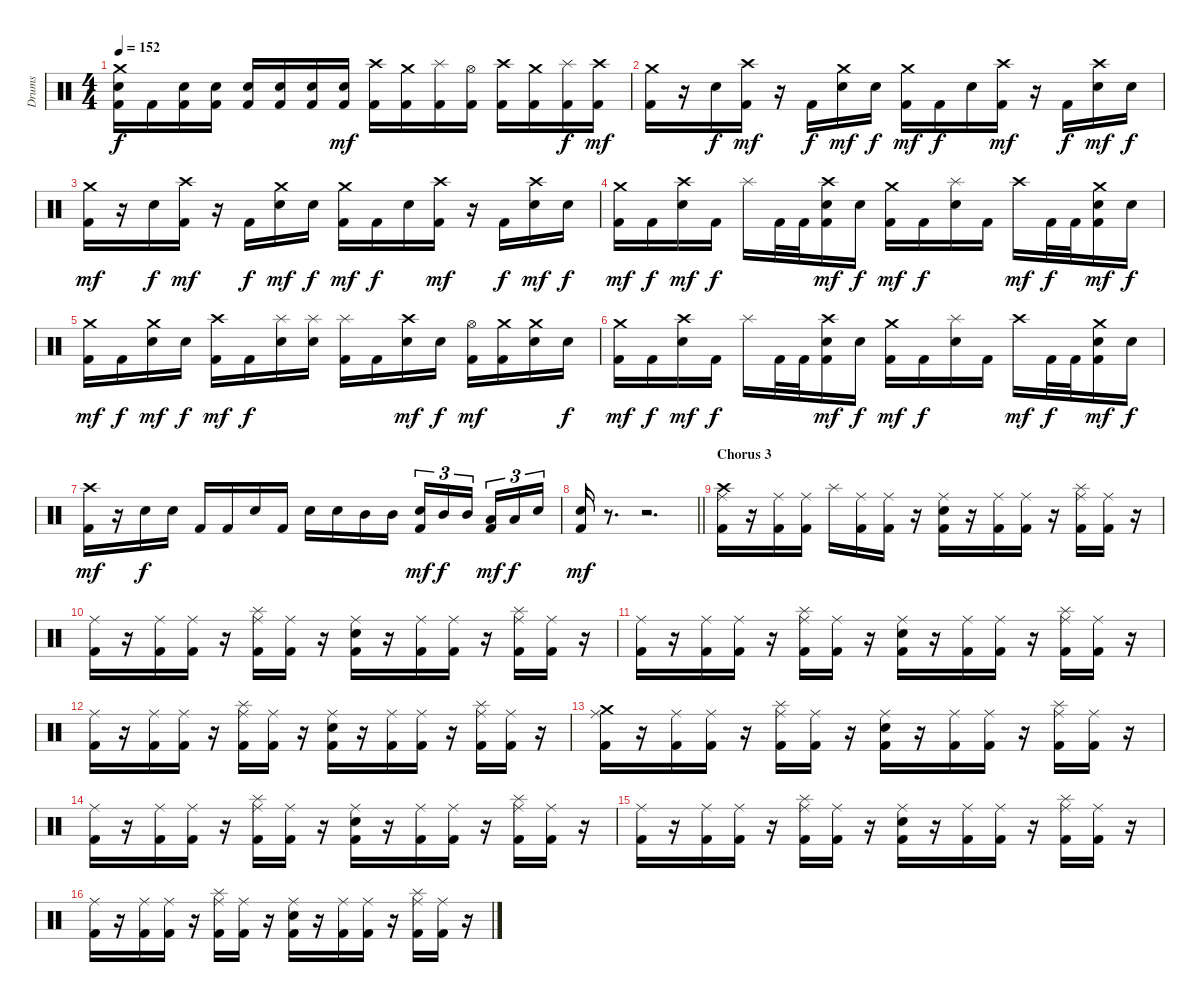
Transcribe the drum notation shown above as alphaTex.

\track ("Drums" "Drums") {instrument percussion}
\staff {score}
\articulation defaults
\ts (4 4)
\tempo 152
\clef neutral
\ks c
("Crash medium (hit)" "Snare (hit) 2" "Kick (hit) 2").16{dy f} "Kick (hit) 2".16 ("Snare (hit) 2" "Kick (hit) 2").16 ("Snare (hit) 2" "Kick (hit) 2").16 ("Snare (hit) 2" "Kick (hit) 2").16 ("Snare (hit) 2" "Kick (hit) 2").16 ("Snare (hit) 2" "Kick (hit) 2").16 ("Snare (hit) 2" "Kick (hit) 2").16{dy mf} ("Crash high (hit)" "Kick (hit) 2").16 ("Crash medium (hit)" "Kick (hit) 2").16 ("Splash (hit)" "Kick (hit) 2").16 ("Hi-Hat (open)" "Kick (hit) 2").16 ("Crash high (hit)" "Kick (hit) 2").16 ("Crash medium (hit)" "Kick (hit) 2").16 ("Splash (hit)" "Kick (hit) 2").16{dy f} ("Crash high (hit)" "Kick (hit) 2").16{dy mf} |
("Crash medium (hit)" "Kick (hit) 2").16 r.16 "Snare (hit) 2".16{dy f} ("Crash high (hit)" "Kick (hit) 2").16{dy mf} r.16 "Kick (hit) 2".16{dy f} ("Crash medium (hit)" "Snare (hit) 2").16{dy mf} "Snare (hit) 2".16{dy f} ("Crash medium (hit)" "Kick (hit) 2").16{dy mf} "Kick (hit) 2".16{dy f} "Snare (hit) 2".16 ("Crash high (hit)" "Kick (hit) 2").16{dy mf} r.16 "Kick (hit) 2".16{dy f} ("Crash high (hit)" "Snare (hit) 2").16{dy mf} "Snare (hit) 2".16{dy f} |
("Crash medium (hit)" "Kick (hit) 2").16{dy mf} r.16 "Snare (hit) 2".16{dy f} ("Crash high (hit)" "Kick (hit) 2").16{dy mf} r.16 "Kick (hit) 2".16{dy f} ("Crash medium (hit)" "Snare (hit) 2").16{dy mf} "Snare (hit) 2".16{dy f} ("Crash medium (hit)" "Kick (hit) 2").16{dy mf} "Kick (hit) 2".16{dy f} "Snare (hit) 2".16 ("Crash high (hit)" "Kick (hit) 2").16{dy mf} r.16 "Kick (hit) 2".16{dy f} ("Crash high (hit)" "Snare (hit) 2").16{dy mf} "Snare (hit) 2".16{dy f} |
("Crash medium (hit)" "Kick (hit) 2").16{dy mf} "Kick (hit) 2".16{dy f} ("Crash high (hit)" "Snare (hit) 2").16{dy mf} "Kick (hit) 2".16{dy f} "Splash (hit)".16 "Kick (hit) 2".32 "Kick (hit) 2".32 ("Crash high (hit)" "Snare (hit) 2" "Kick (hit) 2").16{dy mf} "Snare (hit) 2".16{dy f} ("Crash medium (hit)" "Kick (hit) 2").16{dy mf} "Kick (hit) 2".16{dy f} ("Splash (hit)" "Snare (hit) 2").16 "Kick (hit) 2".16 "Crash high (hit)".16{dy mf} "Kick (hit) 2".32{dy f} "Kick (hit) 2".32 ("Crash medium (hit)" "Snare (hit) 2" "Kick (hit) 2").16{dy mf} "Snare (hit) 2".16{dy f} |
("Crash medium (hit)" "Kick (hit) 2").16{dy mf} "Kick (hit) 2".16{dy f} ("Crash medium (hit)" "Snare (hit) 2").16{dy mf} "Snare (hit) 2".16{dy f} ("Crash high (hit)" "Kick (hit) 2").16{dy mf} "Kick (hit) 2".16{dy f} ("Splash (hit)" "Snare (hit) 2").16 ("Splash (hit)" "Snare (hit) 2").16 ("Splash (hit)" "Kick (hit) 2").16 "Kick (hit) 2".16 ("Crash high (hit)" "Snare (hit) 2").16{dy mf} "Snare (hit) 2".16{dy f} ("Hi-Hat (open)" "Kick (hit) 2").16{dy mf} ("Crash medium (hit)" "Kick (hit) 2").16 ("Crash medium (hit)" "Snare (hit) 2").16 "Snare (hit) 2".16{dy f} |
("Crash medium (hit)" "Kick (hit) 2").16{dy mf} "Kick (hit) 2".16{dy f} ("Crash high (hit)" "Snare (hit) 2").16{dy mf} "Kick (hit) 2".16{dy f} "Splash (hit)".16 "Kick (hit) 2".32 "Kick (hit) 2".32 ("Crash high (hit)" "Snare (hit) 2" "Kick (hit) 2").16{dy mf} "Snare (hit) 2".16{dy f} ("Crash medium (hit)" "Kick (hit) 2").16{dy mf} "Kick (hit) 2".16{dy f} ("Splash (hit)" "Snare (hit) 2").16 "Kick (hit) 2".16 "Crash high (hit)".16{dy mf} "Kick (hit) 2".32{dy f} "Kick (hit) 2".32 ("Crash medium (hit)" "Snare (hit) 2" "Kick (hit) 2").16{dy mf} "Snare (hit) 2".16{dy f} |
("Crash high (hit)" "Kick (hit) 2").16{dy mf} r.16 "Snare (hit) 2".16{dy f} "Snare (hit) 2".16 "Kick (hit) 2".16 "Kick (hit) 2".16 "Snare (hit) 2".16 "Kick (hit) 2".16 "Snare (hit) 2".16 "Snare (hit) 2".16 "Mid Tom (hit)".16 "Mid Tom (hit)".16 ("Snare (hit) 2" "Kick (hit) 2").16{tu (3 2) dy mf} "Mid Tom (hit)".16{tu (3 2) dy f} "Mid Tom (hit)".16{tu (3 2)} ("Low Tom (hit)" "Kick (hit) 2").16{tu (3 2) dy mf} "Low Tom (hit)".16{tu (3 2) dy f} "Snare (hit) 2".16{tu (3 2)} |
\barLineRight lightlight
("Snare (hit) 2" "Kick (hit) 2").16{dy mf} r.8{d} r.2{d} |
\section ("" "Chorus 3")
("Crash high (hit)" "Ride (middle)" "Kick (hit) 2").16 r.16 ("Ride (middle)" "Kick (hit) 2").16 ("Ride (middle)" "Kick (hit) 2").16 "Splash (hit)".16 ("Ride (middle)" "Kick (hit) 2").16 ("Ride (middle)" "Kick (hit) 2").16 r.16 ("Ride (middle)" "Snare (hit) 2" "Kick (hit) 2").16 r.16 ("Ride (middle)" "Kick (hit) 2").16 ("Ride (middle)" "Kick (hit) 2").16 r.16 ("Splash (hit)" "Ride (middle)" "Kick (hit) 2").16 ("Ride (middle)" "Kick (hit) 2").16 r.16 |
("Ride (middle)" "Kick (hit) 2").16 r.16 ("Ride (middle)" "Kick (hit) 2").16 ("Ride (middle)" "Kick (hit) 2").16 r.16 ("Splash (hit)" "Ride (middle)" "Kick (hit) 2").16 ("Ride (middle)" "Kick (hit) 2").16 r.16 ("Ride (middle)" "Snare (hit) 2" "Kick (hit) 2").16 r.16 ("Ride (middle)" "Kick (hit) 2").16 ("Ride (middle)" "Kick (hit) 2").16 r.16 ("Splash (hit)" "Ride (middle)" "Kick (hit) 2").16 ("Ride (middle)" "Kick (hit) 2").16 r.16 |
("Ride (middle)" "Kick (hit) 2").16 r.16 ("Ride (middle)" "Kick (hit) 2").16 ("Ride (middle)" "Kick (hit) 2").16 r.16 ("Splash (hit)" "Ride (middle)" "Kick (hit) 2").16 ("Ride (middle)" "Kick (hit) 2").16 r.16 ("Ride (middle)" "Snare (hit) 2" "Kick (hit) 2").16 r.16 ("Ride (middle)" "Kick (hit) 2").16 ("Ride (middle)" "Kick (hit) 2").16 r.16 ("Splash (hit)" "Ride (middle)" "Kick (hit) 2").16 ("Ride (middle)" "Kick (hit) 2").16 r.16 |
("Ride (middle)" "Kick (hit) 2").16 r.16 ("Ride (middle)" "Kick (hit) 2").16 ("Ride (middle)" "Kick (hit) 2").16 r.16 ("Splash (hit)" "Ride (middle)" "Kick (hit) 2").16 ("Ride (middle)" "Kick (hit) 2").16 r.16 ("Ride (middle)" "Snare (hit) 2" "Kick (hit) 2").16 r.16 ("Ride (middle)" "Kick (hit) 2").16 ("Ride (middle)" "Kick (hit) 2").16 r.16 ("Splash (hit)" "Ride (middle)" "Kick (hit) 2").16 ("Ride (middle)" "Kick (hit) 2").16 r.16 |
("Crash medium (hit)" "Ride (middle)" "Kick (hit) 2").16 r.16 ("Ride (middle)" "Kick (hit) 2").16 ("Ride (middle)" "Kick (hit) 2").16 r.16 ("Splash (hit)" "Ride (middle)" "Kick (hit) 2").16 ("Ride (middle)" "Kick (hit) 2").16 r.16 ("Ride (middle)" "Snare (hit) 2" "Kick (hit) 2").16 r.16 ("Ride (middle)" "Kick (hit) 2").16 ("Ride (middle)" "Kick (hit) 2").16 r.16 ("Splash (hit)" "Ride (middle)" "Kick (hit) 2").16 ("Ride (middle)" "Kick (hit) 2").16 r.16 |
("Ride (middle)" "Kick (hit) 2").16 r.16 ("Ride (middle)" "Kick (hit) 2").16 ("Ride (middle)" "Kick (hit) 2").16 r.16 ("Splash (hit)" "Ride (middle)" "Kick (hit) 2").16 ("Ride (middle)" "Kick (hit) 2").16 r.16 ("Ride (middle)" "Snare (hit) 2" "Kick (hit) 2").16 r.16 ("Ride (middle)" "Kick (hit) 2").16 ("Ride (middle)" "Kick (hit) 2").16 r.16 ("Splash (hit)" "Ride (middle)" "Kick (hit) 2").16 ("Ride (middle)" "Kick (hit) 2").16 r.16 |
("Ride (middle)" "Kick (hit) 2").16 r.16 ("Ride (middle)" "Kick (hit) 2").16 ("Ride (middle)" "Kick (hit) 2").16 r.16 ("Splash (hit)" "Ride (middle)" "Kick (hit) 2").16 ("Ride (middle)" "Kick (hit) 2").16 r.16 ("Ride (middle)" "Snare (hit) 2" "Kick (hit) 2").16 r.16 ("Ride (middle)" "Kick (hit) 2").16 ("Ride (middle)" "Kick (hit) 2").16 r.16 ("Splash (hit)" "Ride (middle)" "Kick (hit) 2").16 ("Ride (middle)" "Kick (hit) 2").16 r.16 |
("Ride (middle)" "Kick (hit) 2").16 r.16 ("Ride (middle)" "Kick (hit) 2").16 ("Ride (middle)" "Kick (hit) 2").16 r.16 ("Splash (hit)" "Ride (middle)" "Kick (hit) 2").16 ("Ride (middle)" "Kick (hit) 2").16 r.16 ("Ride (middle)" "Snare (hit) 2" "Kick (hit) 2").16 r.16 ("Ride (middle)" "Kick (hit) 2").16 ("Ride (middle)" "Kick (hit) 2").16 r.16 ("Splash (hit)" "Ride (middle)" "Kick (hit) 2").16 ("Ride (middle)" "Kick (hit) 2").16 r.16
